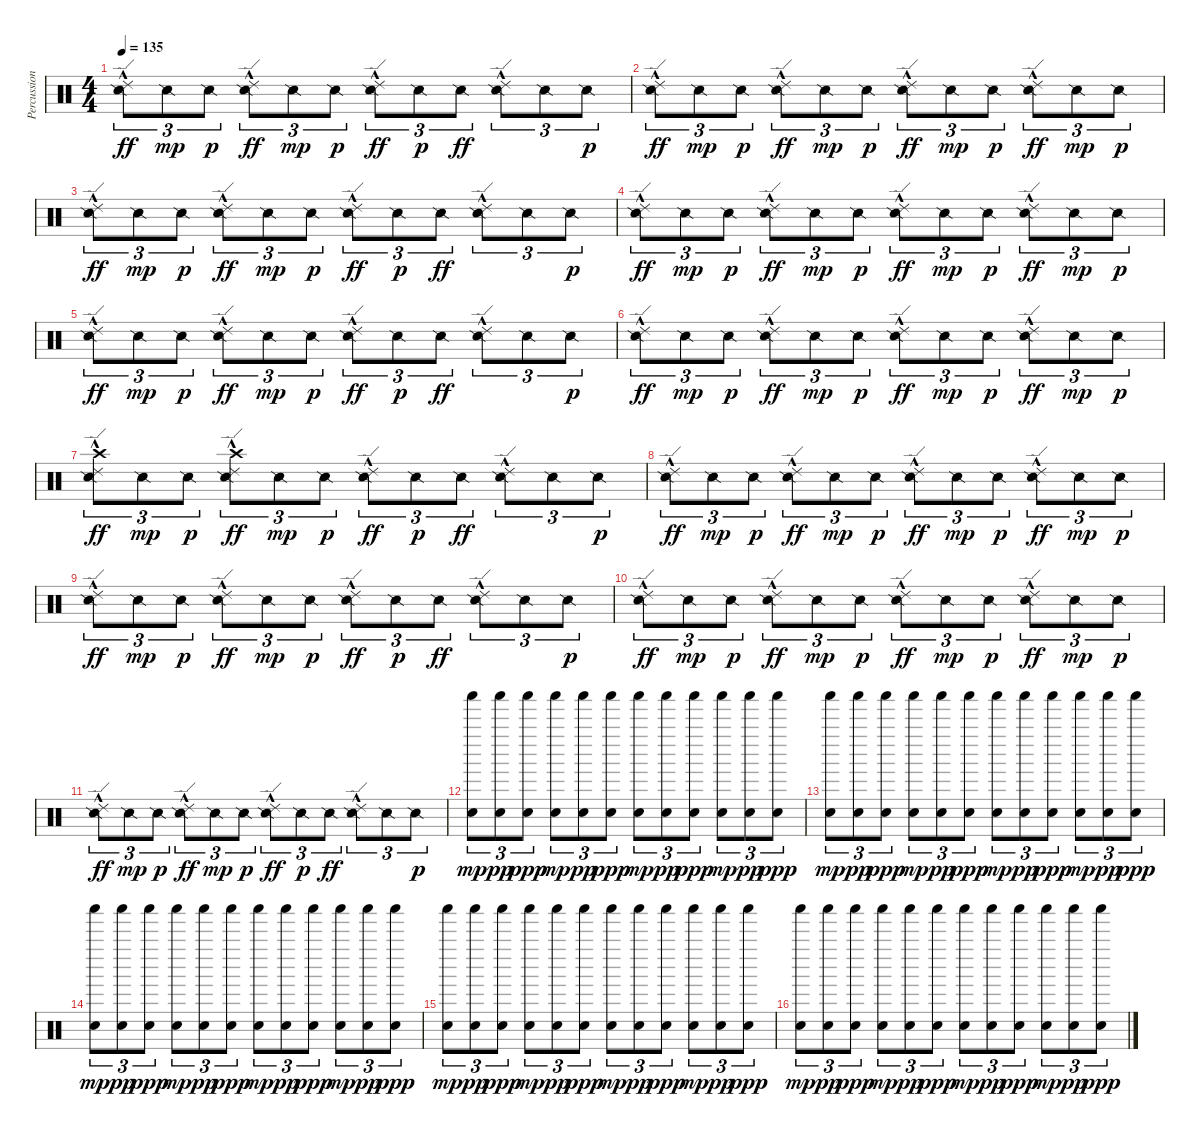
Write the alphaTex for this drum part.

\track ("Percussion" "Percussion") {instrument percussion}
\staff {score}
\articulation defaults
\ts (4 4)
\tempo 135
\clef neutral
\ks c
("Snare (side stick) 2" "Ride (edge) 2"{hac}).8{tu (3 2) dy ff} "Snare (side stick) 2".8{tu (3 2) dy mp} "Snare (side stick) 2".8{tu (3 2) dy p} ("Snare (side stick) 2" "Ride (edge) 2"{hac}).8{tu (3 2) dy ff} "Snare (side stick) 2".8{tu (3 2) dy mp} "Snare (side stick) 2".8{tu (3 2) dy p} ("Snare (side stick) 2" "Ride (edge) 2"{hac}).8{tu (3 2) dy ff} "Snare (side stick) 2".8{tu (3 2) dy p} "Snare (side stick) 2".8{tu (3 2) dy ff} ("Snare (side stick) 2" "Ride (edge) 2"{hac}).8{tu (3 2)} "Snare (side stick) 2".8{tu (3 2)} "Snare (side stick) 2".8{tu (3 2) dy p} |
("Snare (side stick) 2" "Ride (edge) 2"{hac}).8{tu (3 2) dy ff} "Snare (side stick) 2".8{tu (3 2) dy mp} "Snare (side stick) 2".8{tu (3 2) dy p} ("Snare (side stick) 2" "Ride (edge) 2"{hac}).8{tu (3 2) dy ff} "Snare (side stick) 2".8{tu (3 2) dy mp} "Snare (side stick) 2".8{tu (3 2) dy p} ("Snare (side stick) 2" "Ride (edge) 2"{hac}).8{tu (3 2) dy ff} "Snare (side stick) 2".8{tu (3 2) dy mp} "Snare (side stick) 2".8{tu (3 2) dy p} ("Snare (side stick) 2" "Ride (edge) 2"{hac}).8{tu (3 2) dy ff} "Snare (side stick) 2".8{tu (3 2) dy mp} "Snare (side stick) 2".8{tu (3 2) dy p} |
("Snare (side stick) 2" "Ride (edge) 2"{hac}).8{tu (3 2) dy ff} "Snare (side stick) 2".8{tu (3 2) dy mp} "Snare (side stick) 2".8{tu (3 2) dy p} ("Snare (side stick) 2" "Ride (edge) 2"{hac}).8{tu (3 2) dy ff} "Snare (side stick) 2".8{tu (3 2) dy mp} "Snare (side stick) 2".8{tu (3 2) dy p} ("Snare (side stick) 2" "Ride (edge) 2"{hac}).8{tu (3 2) dy ff} "Snare (side stick) 2".8{tu (3 2) dy p} "Snare (side stick) 2".8{tu (3 2) dy ff} ("Snare (side stick) 2" "Ride (edge) 2"{hac}).8{tu (3 2)} "Snare (side stick) 2".8{tu (3 2)} "Snare (side stick) 2".8{tu (3 2) dy p} |
("Snare (side stick) 2" "Ride (edge) 2"{hac}).8{tu (3 2) dy ff} "Snare (side stick) 2".8{tu (3 2) dy mp} "Snare (side stick) 2".8{tu (3 2) dy p} ("Snare (side stick) 2" "Ride (edge) 2"{hac}).8{tu (3 2) dy ff} "Snare (side stick) 2".8{tu (3 2) dy mp} "Snare (side stick) 2".8{tu (3 2) dy p} ("Snare (side stick) 2" "Ride (edge) 2"{hac}).8{tu (3 2) dy ff} "Snare (side stick) 2".8{tu (3 2) dy mp} "Snare (side stick) 2".8{tu (3 2) dy p} ("Snare (side stick) 2" "Ride (edge) 2"{hac}).8{tu (3 2) dy ff} "Snare (side stick) 2".8{tu (3 2) dy mp} "Snare (side stick) 2".8{tu (3 2) dy p} |
("Snare (side stick) 2" "Ride (edge) 2"{hac}).8{tu (3 2) dy ff} "Snare (side stick) 2".8{tu (3 2) dy mp} "Snare (side stick) 2".8{tu (3 2) dy p} ("Snare (side stick) 2" "Ride (edge) 2"{hac}).8{tu (3 2) dy ff} "Snare (side stick) 2".8{tu (3 2) dy mp} "Snare (side stick) 2".8{tu (3 2) dy p} ("Snare (side stick) 2" "Ride (edge) 2"{hac}).8{tu (3 2) dy ff} "Snare (side stick) 2".8{tu (3 2) dy p} "Snare (side stick) 2".8{tu (3 2) dy ff} ("Snare (side stick) 2" "Ride (edge) 2"{hac}).8{tu (3 2)} "Snare (side stick) 2".8{tu (3 2)} "Snare (side stick) 2".8{tu (3 2) dy p} |
("Snare (side stick) 2" "Ride (edge) 2"{hac}).8{tu (3 2) dy ff} "Snare (side stick) 2".8{tu (3 2) dy mp} "Snare (side stick) 2".8{tu (3 2) dy p} ("Snare (side stick) 2" "Ride (edge) 2"{hac}).8{tu (3 2) dy ff} "Snare (side stick) 2".8{tu (3 2) dy mp} "Snare (side stick) 2".8{tu (3 2) dy p} ("Snare (side stick) 2" "Ride (edge) 2"{hac}).8{tu (3 2) dy ff} "Snare (side stick) 2".8{tu (3 2) dy mp} "Snare (side stick) 2".8{tu (3 2) dy p} ("Snare (side stick) 2" "Ride (edge) 2"{hac}).8{tu (3 2) dy ff} "Snare (side stick) 2".8{tu (3 2) dy mp} "Snare (side stick) 2".8{tu (3 2) dy p} |
("Snare (side stick) 2" "Ride (edge) 2"{hac} "Crash high (hit)").8{tu (3 2) dy ff} "Snare (side stick) 2".8{tu (3 2) dy mp} "Snare (side stick) 2".8{tu (3 2) dy p} ("Snare (side stick) 2" "Ride (edge) 2"{hac} "Crash high (hit)").8{tu (3 2) dy ff} "Snare (side stick) 2".8{tu (3 2) dy mp} "Snare (side stick) 2".8{tu (3 2) dy p} ("Snare (side stick) 2" "Ride (edge) 2"{hac}).8{tu (3 2) dy ff} "Snare (side stick) 2".8{tu (3 2) dy p} "Snare (side stick) 2".8{tu (3 2) dy ff} ("Snare (side stick) 2" "Ride (edge) 2"{hac}).8{tu (3 2)} "Snare (side stick) 2".8{tu (3 2)} "Snare (side stick) 2".8{tu (3 2) dy p} |
("Snare (side stick) 2" "Ride (edge) 2"{hac}).8{tu (3 2) dy ff} "Snare (side stick) 2".8{tu (3 2) dy mp} "Snare (side stick) 2".8{tu (3 2) dy p} ("Snare (side stick) 2" "Ride (edge) 2"{hac}).8{tu (3 2) dy ff} "Snare (side stick) 2".8{tu (3 2) dy mp} "Snare (side stick) 2".8{tu (3 2) dy p} ("Snare (side stick) 2" "Ride (edge) 2"{hac}).8{tu (3 2) dy ff} "Snare (side stick) 2".8{tu (3 2) dy mp} "Snare (side stick) 2".8{tu (3 2) dy p} ("Snare (side stick) 2" "Ride (edge) 2"{hac}).8{tu (3 2) dy ff} "Snare (side stick) 2".8{tu (3 2) dy mp} "Snare (side stick) 2".8{tu (3 2) dy p} |
("Snare (side stick) 2" "Ride (edge) 2"{hac}).8{tu (3 2) dy ff} "Snare (side stick) 2".8{tu (3 2) dy mp} "Snare (side stick) 2".8{tu (3 2) dy p} ("Snare (side stick) 2" "Ride (edge) 2"{hac}).8{tu (3 2) dy ff} "Snare (side stick) 2".8{tu (3 2) dy mp} "Snare (side stick) 2".8{tu (3 2) dy p} ("Snare (side stick) 2" "Ride (edge) 2"{hac}).8{tu (3 2) dy ff} "Snare (side stick) 2".8{tu (3 2) dy p} "Snare (side stick) 2".8{tu (3 2) dy ff} ("Snare (side stick) 2" "Ride (edge) 2"{hac}).8{tu (3 2)} "Snare (side stick) 2".8{tu (3 2)} "Snare (side stick) 2".8{tu (3 2) dy p} |
("Snare (side stick) 2" "Ride (edge) 2"{hac}).8{tu (3 2) dy ff} "Snare (side stick) 2".8{tu (3 2) dy mp} "Snare (side stick) 2".8{tu (3 2) dy p} ("Snare (side stick) 2" "Ride (edge) 2"{hac}).8{tu (3 2) dy ff} "Snare (side stick) 2".8{tu (3 2) dy mp} "Snare (side stick) 2".8{tu (3 2) dy p} ("Snare (side stick) 2" "Ride (edge) 2"{hac}).8{tu (3 2) dy ff} "Snare (side stick) 2".8{tu (3 2) dy mp} "Snare (side stick) 2".8{tu (3 2) dy p} ("Snare (side stick) 2" "Ride (edge) 2"{hac}).8{tu (3 2) dy ff} "Snare (side stick) 2".8{tu (3 2) dy mp} "Snare (side stick) 2".8{tu (3 2) dy p} |
("Snare (side stick) 2" "Ride (edge) 2"{hac}).8{tu (3 2) dy ff} "Snare (side stick) 2".8{tu (3 2) dy mp} "Snare (side stick) 2".8{tu (3 2) dy p} ("Snare (side stick) 2" "Ride (edge) 2"{hac}).8{tu (3 2) dy ff} "Snare (side stick) 2".8{tu (3 2) dy mp} "Snare (side stick) 2".8{tu (3 2) dy p} ("Snare (side stick) 2" "Ride (edge) 2"{hac}).8{tu (3 2) dy ff} "Snare (side stick) 2".8{tu (3 2) dy p} "Snare (side stick) 2".8{tu (3 2) dy ff} ("Snare (side stick) 2" "Ride (edge) 2"{hac}).8{tu (3 2)} "Snare (side stick) 2".8{tu (3 2)} "Snare (side stick) 2".8{tu (3 2) dy p} |
("Hand Clap (hit)" "Shaker (hit)").8{tu (3 2) dy mp} ("Hand Clap (hit)" "Shaker (hit)").8{tu (3 2) dy pp} ("Hand Clap (hit)" "Shaker (hit)").8{tu (3 2) dy ppp} ("Hand Clap (hit)" "Shaker (hit)").8{tu (3 2) dy mp} ("Hand Clap (hit)" "Shaker (hit)").8{tu (3 2) dy pp} ("Hand Clap (hit)" "Shaker (hit)").8{tu (3 2) dy ppp} ("Hand Clap (hit)" "Shaker (hit)").8{tu (3 2) dy mp} ("Hand Clap (hit)" "Shaker (hit)").8{tu (3 2) dy pp} ("Hand Clap (hit)" "Shaker (hit)").8{tu (3 2) dy ppp} ("Hand Clap (hit)" "Shaker (hit)").8{tu (3 2) dy mp} ("Hand Clap (hit)" "Shaker (hit)").8{tu (3 2) dy pp} ("Hand Clap (hit)" "Shaker (hit)").8{tu (3 2) dy ppp} |
("Hand Clap (hit)" "Shaker (hit)").8{tu (3 2) dy mp} ("Hand Clap (hit)" "Shaker (hit)").8{tu (3 2) dy pp} ("Hand Clap (hit)" "Shaker (hit)").8{tu (3 2) dy ppp} ("Hand Clap (hit)" "Shaker (hit)").8{tu (3 2) dy mp} ("Hand Clap (hit)" "Shaker (hit)").8{tu (3 2) dy pp} ("Hand Clap (hit)" "Shaker (hit)").8{tu (3 2) dy ppp} ("Hand Clap (hit)" "Shaker (hit)").8{tu (3 2) dy mp} ("Hand Clap (hit)" "Shaker (hit)").8{tu (3 2) dy pp} ("Hand Clap (hit)" "Shaker (hit)").8{tu (3 2) dy ppp} ("Hand Clap (hit)" "Shaker (hit)").8{tu (3 2) dy mp} ("Hand Clap (hit)" "Shaker (hit)").8{tu (3 2) dy pp} ("Hand Clap (hit)" "Shaker (hit)").8{tu (3 2) dy ppp} |
("Hand Clap (hit)" "Shaker (hit)").8{tu (3 2) dy mp} ("Hand Clap (hit)" "Shaker (hit)").8{tu (3 2) dy pp} ("Hand Clap (hit)" "Shaker (hit)").8{tu (3 2) dy ppp} ("Hand Clap (hit)" "Shaker (hit)").8{tu (3 2) dy mp} ("Hand Clap (hit)" "Shaker (hit)").8{tu (3 2) dy pp} ("Hand Clap (hit)" "Shaker (hit)").8{tu (3 2) dy ppp} ("Hand Clap (hit)" "Shaker (hit)").8{tu (3 2) dy mp} ("Hand Clap (hit)" "Shaker (hit)").8{tu (3 2) dy pp} ("Hand Clap (hit)" "Shaker (hit)").8{tu (3 2) dy ppp} ("Hand Clap (hit)" "Shaker (hit)").8{tu (3 2) dy mp} ("Hand Clap (hit)" "Shaker (hit)").8{tu (3 2) dy pp} ("Hand Clap (hit)" "Shaker (hit)").8{tu (3 2) dy ppp} |
("Hand Clap (hit)" "Shaker (hit)").8{tu (3 2) dy mp} ("Hand Clap (hit)" "Shaker (hit)").8{tu (3 2) dy pp} ("Hand Clap (hit)" "Shaker (hit)").8{tu (3 2) dy ppp} ("Hand Clap (hit)" "Shaker (hit)").8{tu (3 2) dy mp} ("Hand Clap (hit)" "Shaker (hit)").8{tu (3 2) dy pp} ("Hand Clap (hit)" "Shaker (hit)").8{tu (3 2) dy ppp} ("Hand Clap (hit)" "Shaker (hit)").8{tu (3 2) dy mp} ("Hand Clap (hit)" "Shaker (hit)").8{tu (3 2) dy pp} ("Hand Clap (hit)" "Shaker (hit)").8{tu (3 2) dy ppp} ("Hand Clap (hit)" "Shaker (hit)").8{tu (3 2) dy mp} ("Hand Clap (hit)" "Shaker (hit)").8{tu (3 2) dy pp} ("Hand Clap (hit)" "Shaker (hit)").8{tu (3 2) dy ppp} |
("Hand Clap (hit)" "Shaker (hit)").8{tu (3 2) dy mp} ("Hand Clap (hit)" "Shaker (hit)").8{tu (3 2) dy pp} ("Hand Clap (hit)" "Shaker (hit)").8{tu (3 2) dy ppp} ("Hand Clap (hit)" "Shaker (hit)").8{tu (3 2) dy mp} ("Hand Clap (hit)" "Shaker (hit)").8{tu (3 2) dy pp} ("Hand Clap (hit)" "Shaker (hit)").8{tu (3 2) dy ppp} ("Hand Clap (hit)" "Shaker (hit)").8{tu (3 2) dy mp} ("Hand Clap (hit)" "Shaker (hit)").8{tu (3 2) dy pp} ("Hand Clap (hit)" "Shaker (hit)").8{tu (3 2) dy ppp} ("Hand Clap (hit)" "Shaker (hit)").8{tu (3 2) dy mp} ("Hand Clap (hit)" "Shaker (hit)").8{tu (3 2) dy pp} ("Hand Clap (hit)" "Shaker (hit)").8{tu (3 2) dy ppp}
